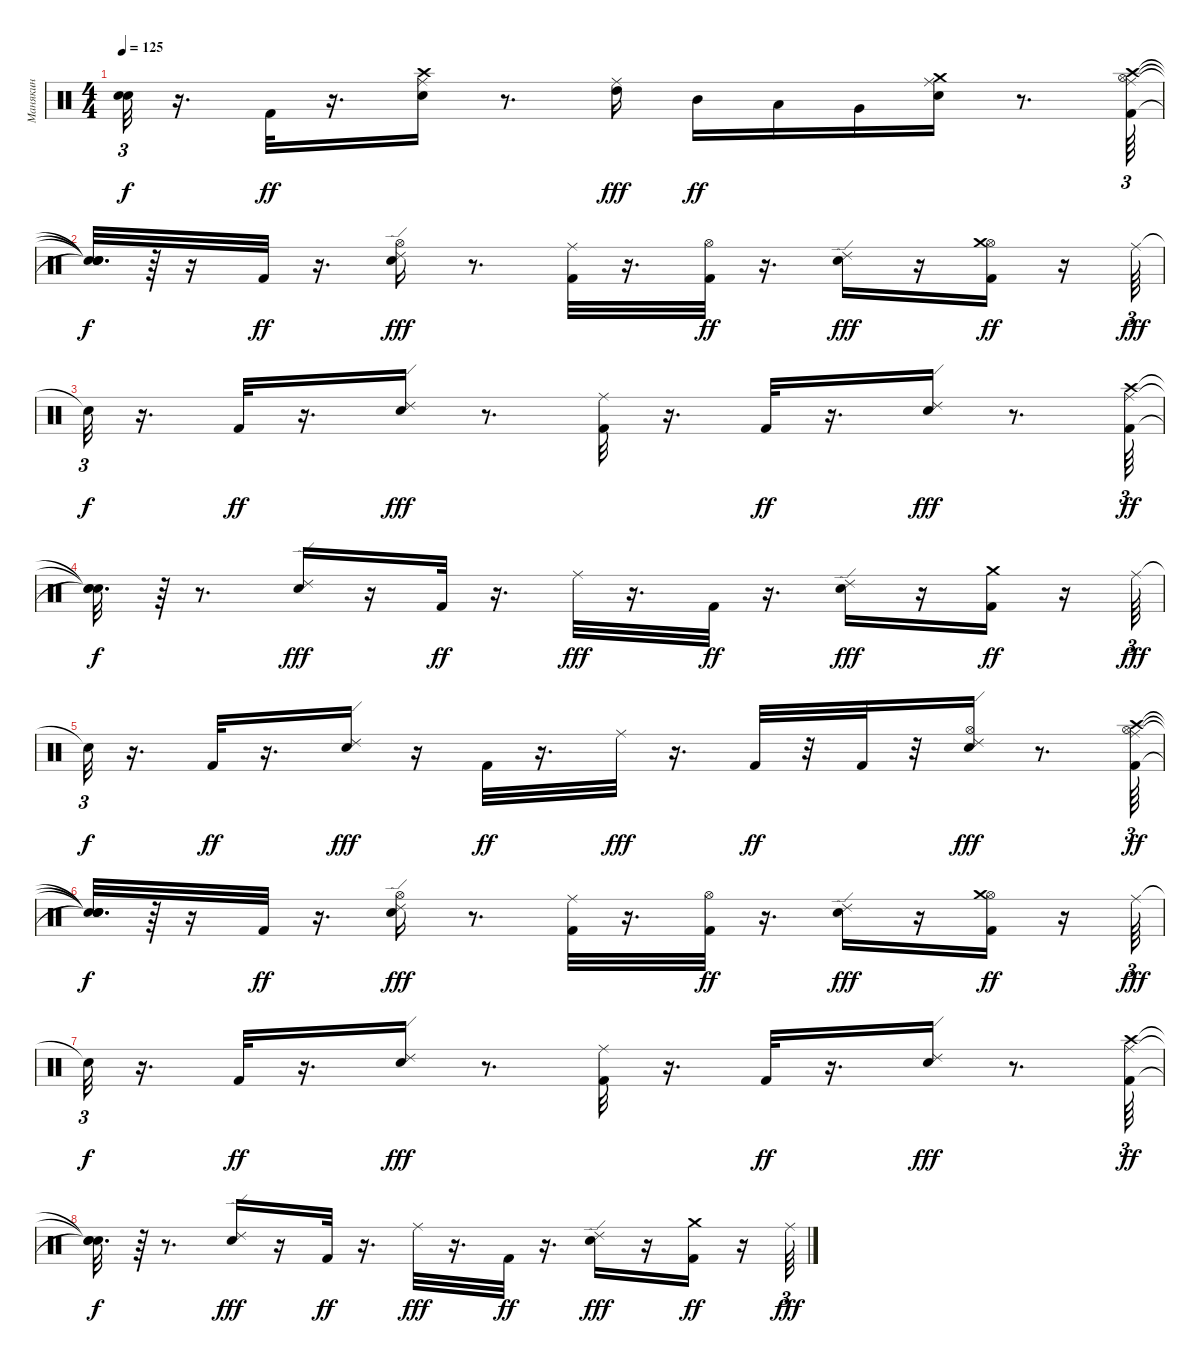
\track ("Манякин" "Манякин") {instrument percussion}
\staff {score}
\articulation defaults
\ts (4 4)
\tempo 125
\clef neutral
\ks c
("Snare (hit)"{t} "Snare (hit)"{t}).32{tu (3 2) dy f} r.16{d} "Kick (hit) 2".32{dy ff} r.16{d} ("Snare (hit) 2" "Ride (middle)" "Crash high (hit)").16 r.8{d} ("High Tom (hit)" "Ride (middle)").16{dy fff} "Mid Tom (hit)".16{dy ff} "Low Tom (hit)".16 "Very Low Tom (hit)".16 ("Snare (hit) 2" "Ride (middle)" "Crash medium (hit)").16 r.8{d} ("Kick (hit) 2" "Hi-Hat (open)" "Ride (middle)" "Crash high (hit)").64{tu (3 2)} |
("Snare (hit)"{t} "Snare (hit)"{t} "Snare (hit)"{t} "Snare (hit)"{t}).32{d dy f} r.64 r.16 "Kick (hit) 2".32{dy ff} r.16{d} ("Snare (hit) 2" "Hi-Hat (open)" "Ride (edge) 2").16{dy fff} r.8{d} ("Kick (hit) 2" "Ride (middle)").32 r.16{d} ("Kick (hit) 2" "Hi-Hat (open)").32{dy ff} r.16{d} ("Snare (hit) 2" "Ride (edge) 2").16{dy fff} r.16 ("Kick (hit) 2" "Hi-Hat (open)" "Crash medium (hit)").16{dy ff} r.16 "Ride (middle)".64{tu (3 2) dy fff} |
"Snare (hit)"{t}.32{tu (3 2) dy f} r.16{d} "Kick (hit) 2".32{dy ff} r.16{d} ("Snare (hit) 2" "Ride (edge) 2").16{dy fff} r.8{d} ("Kick (hit) 2" "Ride (middle)").32 r.16{d} "Kick (hit) 2".32{dy ff} r.16{d} ("Snare (hit) 2" "Ride (edge) 2").16{dy fff} r.8{d} ("Kick (hit) 2" "Ride (middle)" "Crash high (hit)").64{tu (3 2) dy ff} |
("Snare (hit)"{t} "Snare (hit)"{t} "Snare (hit)"{t}).32{d dy f} r.64 r.8{d} ("Snare (hit) 2" "Ride (edge) 2").16{dy fff} r.16 "Kick (hit) 2".32{dy ff} r.16{d} "Ride (middle)".32{dy fff} r.16{d} "Kick (hit) 2".32{dy ff} r.16{d} ("Snare (hit) 2" "Ride (edge) 2").16{dy fff} r.16 ("Kick (hit) 2" "Crash medium (hit)").16{dy ff} r.16 "Ride (middle)".64{tu (3 2) dy fff} |
"Snare (hit)"{t}.32{tu (3 2) dy f} r.16{d} "Kick (hit) 2".32{dy ff} r.16{d} ("Snare (hit) 2" "Ride (edge) 2").16{dy fff} r.16 "Kick (hit) 2".32{dy ff} r.16{d} "Ride (middle)".32{dy fff} r.16{d} "Kick (hit) 2".32{dy ff} r.32 "Kick (hit) 2".32 r.32 ("Snare (hit) 2" "Hi-Hat (open)" "Ride (edge) 2").16{dy fff} r.8{d} ("Kick (hit) 2" "Hi-Hat (open)" "Ride (middle)" "Crash high (hit)").64{tu (3 2) dy ff} |
("Snare (hit)"{t} "Snare (hit)"{t} "Snare (hit)"{t} "Snare (hit)"{t}).32{d dy f} r.64 r.16 "Kick (hit) 2".32{dy ff} r.16{d} ("Snare (hit) 2" "Hi-Hat (open)" "Ride (edge) 2").16{dy fff} r.8{d} ("Kick (hit) 2" "Ride (middle)").32 r.16{d} ("Kick (hit) 2" "Hi-Hat (open)").32{dy ff} r.16{d} ("Snare (hit) 2" "Ride (edge) 2").16{dy fff} r.16 ("Kick (hit) 2" "Hi-Hat (open)" "Crash medium (hit)").16{dy ff} r.16 "Ride (middle)".64{tu (3 2) dy fff} |
"Snare (hit)"{t}.32{tu (3 2) dy f} r.16{d} "Kick (hit) 2".32{dy ff} r.16{d} ("Snare (hit) 2" "Ride (edge) 2").16{dy fff} r.8{d} ("Kick (hit) 2" "Ride (middle)").32 r.16{d} "Kick (hit) 2".32{dy ff} r.16{d} ("Snare (hit) 2" "Ride (edge) 2").16{dy fff} r.8{d} ("Kick (hit) 2" "Ride (middle)" "Crash high (hit)").64{tu (3 2) dy ff} |
("Snare (hit)"{t} "Snare (hit)"{t} "Snare (hit)"{t}).32{d dy f} r.64 r.8{d} ("Snare (hit) 2" "Ride (edge) 2").16{dy fff} r.16 "Kick (hit) 2".32{dy ff} r.16{d} "Ride (middle)".32{dy fff} r.16{d} "Kick (hit) 2".32{dy ff} r.16{d} ("Snare (hit) 2" "Ride (edge) 2").16{dy fff} r.16 ("Kick (hit) 2" "Crash medium (hit)").16{dy ff} r.16 "Ride (middle)".64{tu (3 2) dy fff}
